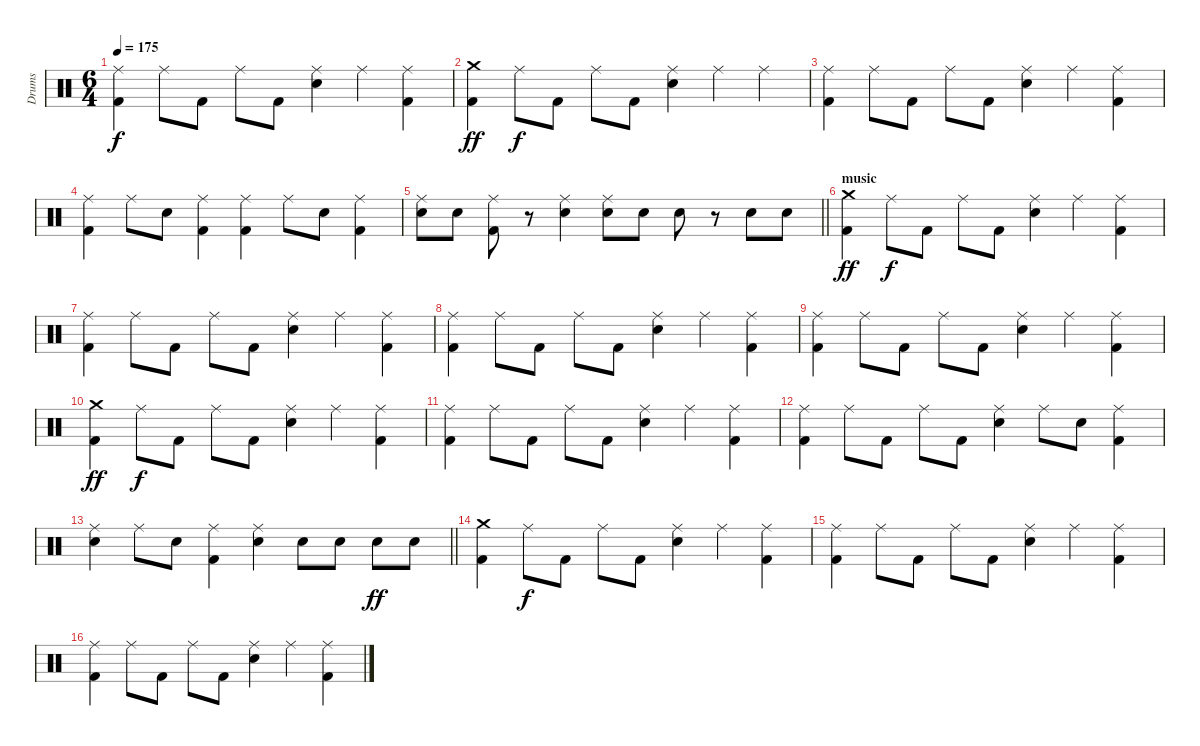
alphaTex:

\track ("Drums" "Drums") {instrument percussion}
\staff {score}
\articulation defaults
\ts (6 4)
\tempo 175
\clef neutral
\ks c
("Ride (middle)" "Kick (hit) 2").4{dy f} "Ride (middle)".8 "Kick (hit) 2".8 "Ride (middle)".8 "Kick (hit) 2".8 ("Ride (middle)" "Snare (hit) 2").4 "Ride (middle)".4 ("Ride (middle)" "Kick (hit) 2").4 |
("Crash medium (hit)" "Kick (hit) 2").4{dy ff} "Ride (middle)".8{dy f} "Kick (hit) 2".8 "Ride (middle)".8 "Kick (hit) 2".8 ("Ride (middle)" "Snare (hit) 2").4 "Ride (middle)".4 "Ride (middle)".4 |
("Ride (middle)" "Kick (hit) 2").4 "Ride (middle)".8 "Kick (hit) 2".8 "Ride (middle)".8 "Kick (hit) 2".8 ("Ride (middle)" "Snare (hit) 2").4 "Ride (middle)".4 ("Ride (middle)" "Kick (hit) 2").4 |
("Ride (middle)" "Kick (hit) 2").4 "Ride (middle)".8 "Snare (hit) 2".8 ("Ride (middle)" "Kick (hit) 2").4 ("Ride (middle)" "Kick (hit) 2").4 "Ride (middle)".8 "Snare (hit) 2".8 ("Ride (middle)" "Kick (hit) 2").4 |
\barLineRight lightlight
("Ride (middle)" "Snare (hit) 2").8 "Snare (hit) 2".8 ("Ride (middle)" "Kick (hit) 2").8 r.8 ("Ride (middle)" "Snare (hit) 2").4 ("Ride (middle)" "Snare (hit) 2").8 "Snare (hit) 2".8 "Snare (hit) 2".8 r.8 "Snare (hit) 2".8 "Snare (hit) 2".8 |
\section ("" "music")
("Crash medium (hit)" "Kick (hit) 2").4{dy ff} "Ride (middle)".8{dy f} "Kick (hit) 2".8 "Ride (middle)".8 "Kick (hit) 2".8 ("Ride (middle)" "Snare (hit) 2").4 "Ride (middle)".4 ("Ride (middle)" "Kick (hit) 2").4 |
("Ride (middle)" "Kick (hit) 2").4 "Ride (middle)".8 "Kick (hit) 2".8 "Ride (middle)".8 "Kick (hit) 2".8 ("Ride (middle)" "Snare (hit) 2").4 "Ride (middle)".4 ("Ride (middle)" "Kick (hit) 2").4 |
("Ride (middle)" "Kick (hit) 2").4 "Ride (middle)".8 "Kick (hit) 2".8 "Ride (middle)".8 "Kick (hit) 2".8 ("Ride (middle)" "Snare (hit) 2").4 "Ride (middle)".4 ("Ride (middle)" "Kick (hit) 2").4 |
("Ride (middle)" "Kick (hit) 2").4 "Ride (middle)".8 "Kick (hit) 2".8 "Ride (middle)".8 "Kick (hit) 2".8 ("Ride (middle)" "Snare (hit) 2").4 "Ride (middle)".4 ("Ride (middle)" "Kick (hit) 2").4 |
("Crash medium (hit)" "Kick (hit) 2").4{dy ff} "Ride (middle)".8{dy f} "Kick (hit) 2".8 "Ride (middle)".8 "Kick (hit) 2".8 ("Ride (middle)" "Snare (hit) 2").4 "Ride (middle)".4 ("Ride (middle)" "Kick (hit) 2").4 |
("Ride (middle)" "Kick (hit) 2").4 "Ride (middle)".8 "Kick (hit) 2".8 "Ride (middle)".8 "Kick (hit) 2".8 ("Ride (middle)" "Snare (hit) 2").4 "Ride (middle)".4 ("Ride (middle)" "Kick (hit) 2").4 |
("Ride (middle)" "Kick (hit) 2").4 "Ride (middle)".8 "Kick (hit) 2".8 "Ride (middle)".8 "Kick (hit) 2".8 ("Ride (middle)" "Snare (hit) 2").4 "Ride (middle)".8 "Snare (hit) 2".8 ("Ride (middle)" "Kick (hit) 2").4 |
\barLineRight lightlight
("Ride (middle)" "Snare (hit) 2").4 "Ride (middle)".8 "Snare (hit) 2".8 ("Ride (middle)" "Kick (hit) 2").4 ("Ride (middle)" "Snare (hit) 2").4 "Snare (hit) 2".8 "Snare (hit) 2".8 "Snare (hit) 2".8{dy ff} "Snare (hit) 2".8 |
\section ("" "")
("Crash medium (hit)" "Kick (hit) 2").4 "Ride (middle)".8{dy f} "Kick (hit) 2".8 "Ride (middle)".8 "Kick (hit) 2".8 ("Ride (middle)" "Snare (hit) 2").4 "Ride (middle)".4 ("Ride (middle)" "Kick (hit) 2").4 |
("Ride (middle)" "Kick (hit) 2").4 "Ride (middle)".8 "Kick (hit) 2".8 "Ride (middle)".8 "Kick (hit) 2".8 ("Ride (middle)" "Snare (hit) 2").4 "Ride (middle)".4 ("Ride (middle)" "Kick (hit) 2").4 |
("Ride (middle)" "Kick (hit) 2").4 "Ride (middle)".8 "Kick (hit) 2".8 "Ride (middle)".8 "Kick (hit) 2".8 ("Ride (middle)" "Snare (hit) 2").4 "Ride (middle)".4 ("Ride (middle)" "Kick (hit) 2").4
